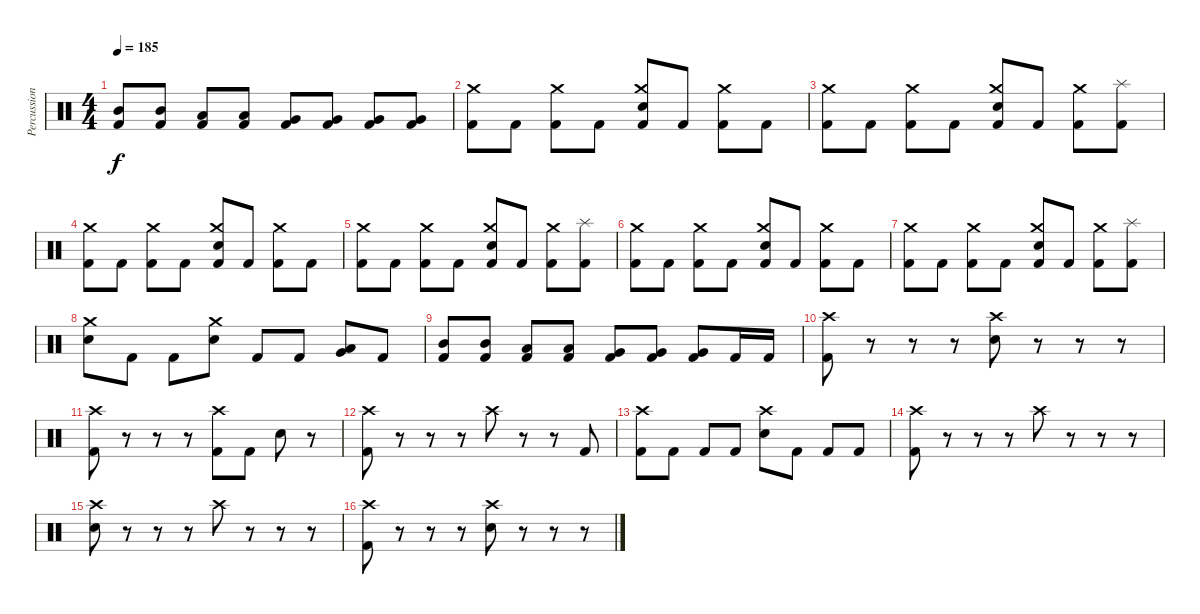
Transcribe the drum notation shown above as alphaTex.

\track ("Percussion" "Percussion") {instrument percussion}
\staff {score}
\articulation defaults
\ts (4 4)
\tempo 185
\clef neutral
\ks c
("Mid Tom (hit)" "Kick (hit) 2").8{dy f} ("Mid Tom (hit)" "Kick (hit) 2").8 ("Low Tom (hit)" "Kick (hit) 2").8 ("Low Tom (hit)" "Kick (hit) 2").8 ("Very Low Tom (hit)" "Kick (hit) 2").8 ("Very Low Tom (hit)" "Kick (hit) 2").8 ("Very Low Tom (hit)" "Kick (hit) 2").8 ("Very Low Tom (hit)" "Kick (hit) 2").8 |
("Crash medium (hit)" "Kick (hit) 2").8 "Kick (hit) 2".8 ("Crash medium (hit)" "Kick (hit) 2").8 "Kick (hit) 2".8 ("Crash medium (hit)" "Snare (hit) 2" "Kick (hit) 2").8 "Kick (hit) 2".8 ("Crash medium (hit)" "Kick (hit) 2").8 "Kick (hit) 2".8 |
("Crash medium (hit)" "Kick (hit) 2").8 "Kick (hit) 2".8 ("Crash medium (hit)" "Kick (hit) 2").8 "Kick (hit) 2".8 ("Crash medium (hit)" "Snare (hit) 2" "Kick (hit) 2").8 "Kick (hit) 2".8 ("Crash medium (hit)" "Kick (hit) 2").8 ("Splash (hit)" "Kick (hit) 2").8 |
("Crash medium (hit)" "Kick (hit) 2").8 "Kick (hit) 2".8 ("Crash medium (hit)" "Kick (hit) 2").8 "Kick (hit) 2".8 ("Crash medium (hit)" "Snare (hit) 2" "Kick (hit) 2").8 "Kick (hit) 2".8 ("Crash medium (hit)" "Kick (hit) 2").8 "Kick (hit) 2".8 |
("Crash medium (hit)" "Kick (hit) 2").8 "Kick (hit) 2".8 ("Crash medium (hit)" "Kick (hit) 2").8 "Kick (hit) 2".8 ("Crash medium (hit)" "Snare (hit) 2" "Kick (hit) 2").8 "Kick (hit) 2".8 ("Crash medium (hit)" "Kick (hit) 2").8 ("Splash (hit)" "Kick (hit) 2").8 |
("Crash medium (hit)" "Kick (hit) 2").8 "Kick (hit) 2".8 ("Crash medium (hit)" "Kick (hit) 2").8 "Kick (hit) 2".8 ("Crash medium (hit)" "Snare (hit) 2" "Kick (hit) 2").8 "Kick (hit) 2".8 ("Crash medium (hit)" "Kick (hit) 2").8 "Kick (hit) 2".8 |
("Crash medium (hit)" "Kick (hit) 2").8 "Kick (hit) 2".8 ("Crash medium (hit)" "Kick (hit) 2").8 "Kick (hit) 2".8 ("Crash medium (hit)" "Snare (hit) 2" "Kick (hit) 2").8 "Kick (hit) 2".8 ("Crash medium (hit)" "Kick (hit) 2").8 ("Splash (hit)" "Kick (hit) 2").8 |
("Crash medium (hit)" "Snare (hit) 2").8 "Kick (hit) 2".8 "Kick (hit) 2".8 ("Crash medium (hit)" "Snare (hit) 2").8 "Kick (hit) 2".8 "Kick (hit) 2".8 ("Low Tom (hit)" "Very Low Tom (hit)").8 "Kick (hit) 2".8 |
("Mid Tom (hit)" "Kick (hit) 2").8 ("Mid Tom (hit)" "Kick (hit) 2").8 ("Low Tom (hit)" "Kick (hit) 2").8 ("Low Tom (hit)" "Kick (hit) 2").8 ("Very Low Tom (hit)" "Kick (hit) 2").8 ("Very Low Tom (hit)" "Kick (hit) 2").8 ("Very Low Tom (hit)" "Kick (hit) 2").8 "Kick (hit) 2".16 "Kick (hit) 2".16 |
("Crash high (hit)" "Kick (hit) 2").8 r.8 r.8 r.8 ("Crash high (hit)" "Snare (hit) 2").8 r.8 r.8 r.8 |
("Crash high (hit)" "Kick (hit) 2").8 r.8 r.8 r.8 ("Crash high (hit)" "Kick (hit) 2").8 "Kick (hit) 2".8 "Snare (hit) 2".8 r.8 |
("Crash high (hit)" "Kick (hit) 2").8 r.8 r.8 r.8 "Crash high (hit)".8 r.8 r.8 "Kick (hit) 2".8 |
("Crash high (hit)" "Kick (hit) 2").8 "Kick (hit) 2".8 "Kick (hit) 2".8 "Kick (hit) 2".8 ("Crash high (hit)" "Snare (hit) 2").8 "Kick (hit) 2".8 "Kick (hit) 2".8 "Kick (hit) 2".8 |
("Crash high (hit)" "Kick (hit) 2").8 r.8 r.8 r.8 "Crash high (hit)".8 r.8 r.8 r.8 |
("Crash high (hit)" "Snare (hit) 2").8 r.8 r.8 r.8 "Crash high (hit)".8 r.8 r.8 r.8 |
("Crash high (hit)" "Kick (hit) 2").8 r.8 r.8 r.8 ("Crash high (hit)" "Snare (hit) 2").8 r.8 r.8 r.8
